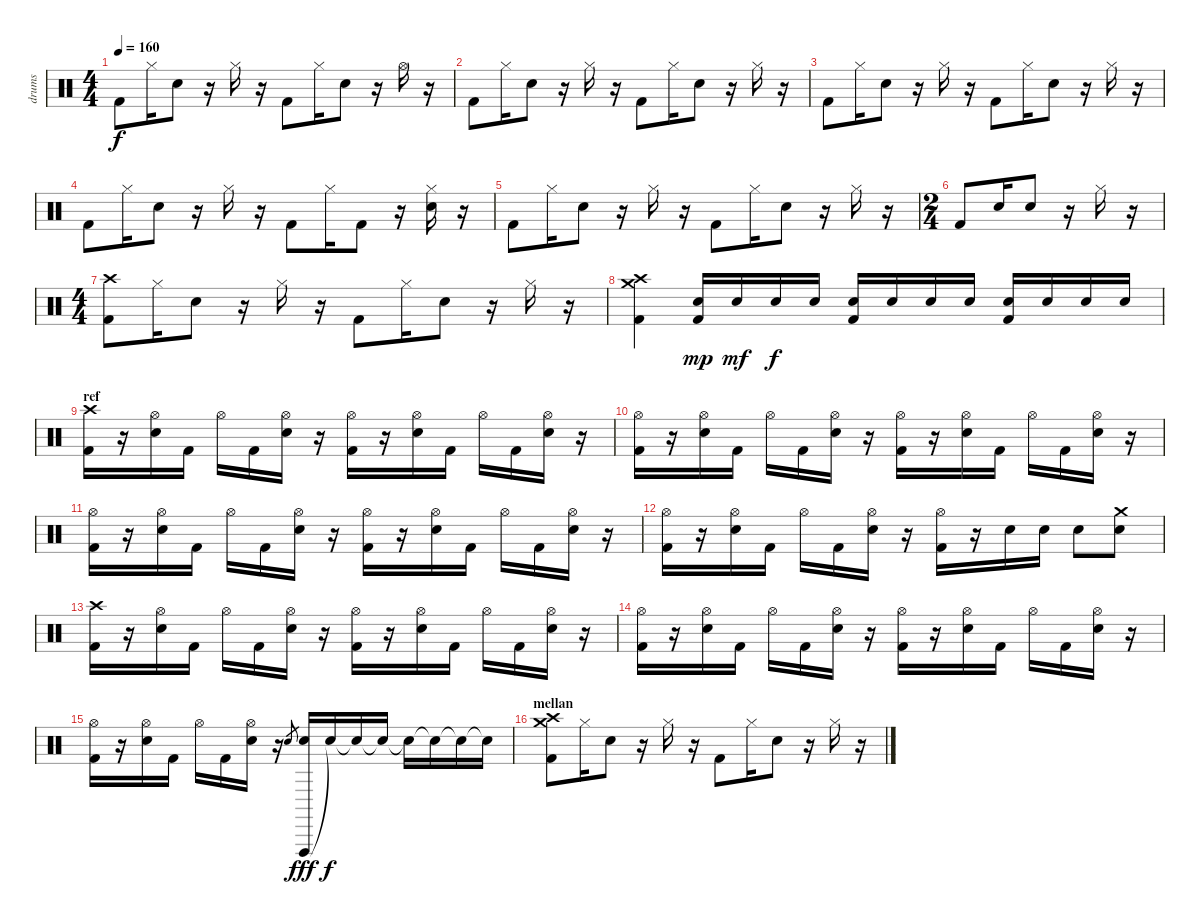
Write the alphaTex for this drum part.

\track ("drums" "drums") {instrument percussion}
\staff {score}
\articulation defaults
\ts (4 4)
\tempo 160
\clef neutral
\ks c "Kick (hit) 2".8{dy f} "Hi-Hat (closed)".16 "Electric Snare (hit)".8
r.16 "Hi-Hat (closed)".16 r.16 "Kick (hit) 2".8 "Hi-Hat (closed)".16 "Electric Snare (hit)".8 r.16 "Hi-Hat (open)".16 r.16 |
"Kick (hit) 2".8 "Hi-Hat (closed)".16 "Electric Snare (hit)".8 r.16 "Hi-Hat (closed)".16 r.16 "Kick (hit) 2".8 "Hi-Hat (closed)".16 "Electric Snare (hit)".8 r.16 "Hi-Hat (closed)".16 r.16 |
"Kick (hit) 2".8 "Hi-Hat (closed)".16 "Electric Snare (hit)".8 r.16 "Hi-Hat (closed)".16 r.16 "Kick (hit) 2".8 "Hi-Hat (closed)".16 "Electric Snare (hit)".8 r.16 "Hi-Hat (closed)".16 r.16 |
"Kick (hit) 2".8 "Hi-Hat (closed)".16 "Electric Snare (hit)".8 r.16 "Hi-Hat (closed)".16 r.16 "Kick (hit) 2".8 "Hi-Hat (closed)".16 "Kick (hit) 2".8 r.16 ("Hi-Hat (closed)" "Electric Snare (hit)").16 r.16 |
"Kick (hit) 2".8 "Hi-Hat (closed)".16 "Electric Snare (hit)".8 r.16 "Hi-Hat (closed)".16 r.16 "Kick (hit) 2".8 "Hi-Hat (closed)".16 "Electric Snare (hit)".8 r.16 "Hi-Hat (closed)".16 r.16 |
\ts (2 4)
"Kick (hit) 2".8 "Electric Snare (hit)".16 "Electric Snare (hit)".8 r.16 "Hi-Hat (closed)".16 r.16 |
\ts (4 4)
("Crash high (hit)" "Kick (hit) 2").8 "Hi-Hat (closed)".16 "Electric Snare (hit)".8 r.16 "Hi-Hat (closed)".16 r.16 "Kick (hit) 2".8 "Hi-Hat (closed)".16 "Electric Snare (hit)".8 r.16 "Hi-Hat (closed)".16 r.16 |
("Crash high (hit)" "Crash medium (hit)" "Kick (hit) 2").4 ("Electric Snare (hit)" "Kick (hit) 2").16{dy mp} "Electric Snare (hit)".16{dy mf} "Electric Snare (hit)".16{dy f} "Electric Snare (hit)".16 ("Electric Snare (hit)" "Kick (hit) 2").16 "Electric Snare (hit)".16 "Electric Snare (hit)".16 "Electric Snare (hit)".16 ("Electric Snare (hit)" "Kick (hit) 2").16 "Electric Snare (hit)".16 "Electric Snare (hit)".16 "Electric Snare (hit)".16 |
\section ("" "ref")
("Crash high (hit)" "Kick (hit) 2").16 r.16 ("Hi-Hat (open)" "Electric Snare (hit)").16 "Kick (hit) 2".16 "Hi-Hat (open)".16 "Kick (hit) 2".16 ("Hi-Hat (open)" "Electric Snare (hit)").16 r.16 ("Hi-Hat (open)" "Kick (hit) 2").16 r.16 ("Hi-Hat (open)" "Electric Snare (hit)").16 "Kick (hit) 2".16 "Hi-Hat (open)".16 "Kick (hit) 2".16 ("Hi-Hat (open)" "Electric Snare (hit)").16 r.16 |
("Hi-Hat (open)" "Kick (hit) 2").16 r.16 ("Hi-Hat (open)" "Electric Snare (hit)").16 "Kick (hit) 2".16 "Hi-Hat (open)".16 "Kick (hit) 2".16 ("Hi-Hat (open)" "Electric Snare (hit)").16 r.16 ("Hi-Hat (open)" "Kick (hit) 2").16 r.16 ("Hi-Hat (open)" "Electric Snare (hit)").16 "Kick (hit) 2".16 "Hi-Hat (open)".16 "Kick (hit) 2".16 ("Hi-Hat (open)" "Electric Snare (hit)").16 r.16 |
("Hi-Hat (open)" "Kick (hit) 2").16 r.16 ("Hi-Hat (open)" "Electric Snare (hit)").16 "Kick (hit) 2".16 "Hi-Hat (open)".16 "Kick (hit) 2".16 ("Hi-Hat (open)" "Electric Snare (hit)").16 r.16 ("Hi-Hat (open)" "Kick (hit) 2").16 r.16 ("Hi-Hat (open)" "Electric Snare (hit)").16 "Kick (hit) 2".16 "Hi-Hat (open)".16 "Kick (hit) 2".16 ("Hi-Hat (open)" "Electric Snare (hit)").16 r.16 |
("Hi-Hat (open)" "Kick (hit) 2").16 r.16 ("Hi-Hat (open)" "Electric Snare (hit)").16 "Kick (hit) 2".16 "Hi-Hat (open)".16 "Kick (hit) 2".16 ("Hi-Hat (open)" "Electric Snare (hit)").16 r.16 ("Hi-Hat (open)" "Kick (hit) 2").16 r.16 "Electric Snare (hit)".16 "Electric Snare (hit)".16 "Electric Snare (hit)".8 ("Crash medium (hit)" "Electric Snare (hit)").8 |
("Crash high (hit)" "Kick (hit) 2").16 r.16 ("Hi-Hat (open)" "Electric Snare (hit)").16 "Kick (hit) 2".16 "Hi-Hat (open)".16 "Kick (hit) 2".16 ("Hi-Hat (open)" "Electric Snare (hit)").16 r.16 ("Hi-Hat (open)" "Kick (hit) 2").16 r.16 ("Hi-Hat (open)" "Electric Snare (hit)").16 "Kick (hit) 2".16 "Hi-Hat (open)".16 "Kick (hit) 2".16 ("Hi-Hat (open)" "Electric Snare (hit)").16 r.16 |
("Hi-Hat (open)" "Kick (hit) 2").16 r.16 ("Hi-Hat (open)" "Electric Snare (hit)").16 "Kick (hit) 2".16 "Hi-Hat (open)".16 "Kick (hit) 2".16 ("Hi-Hat (open)" "Electric Snare (hit)").16 r.16 ("Hi-Hat (open)" "Kick (hit) 2").16 r.16 ("Hi-Hat (open)" "Electric Snare (hit)").16 "Kick (hit) 2".16 "Hi-Hat (open)".16 "Kick (hit) 2".16 ("Hi-Hat (open)" "Electric Snare (hit)").16 r.16 |
("Hi-Hat (open)" "Kick (hit) 2").16 r.16 ("Hi-Hat (open)" "Electric Snare (hit)").16 "Kick (hit) 2".16 "Hi-Hat (open)".16 "Kick (hit) 2".16 ("Hi-Hat (open)" "Electric Snare (hit)").16 r.16 "Electric Snare (hit)".8{gr} ("Vibraslap (hit)" "Electric Snare (hit)").16{dy fff} "Snare (hit)"{t}.16{dy f} "Snare (hit)"{t}.16 "Snare (hit)"{t}.16 "Snare (hit)"{t}.16 "Snare (hit)"{t}.16 "Snare (hit)"{t}.16 "Snare (hit)"{t}.16 |
\section ("" "mellan")
("Crash high (hit)" "Crash medium (hit)" "Kick (hit) 2").8 "Hi-Hat (closed)".16 "Electric Snare (hit)".8 r.16 "Hi-Hat (closed)".16 r.16 "Kick (hit) 2".8 "Hi-Hat (closed)".16 "Electric Snare (hit)".8 r.16 "Hi-Hat (closed)".16 r.16
